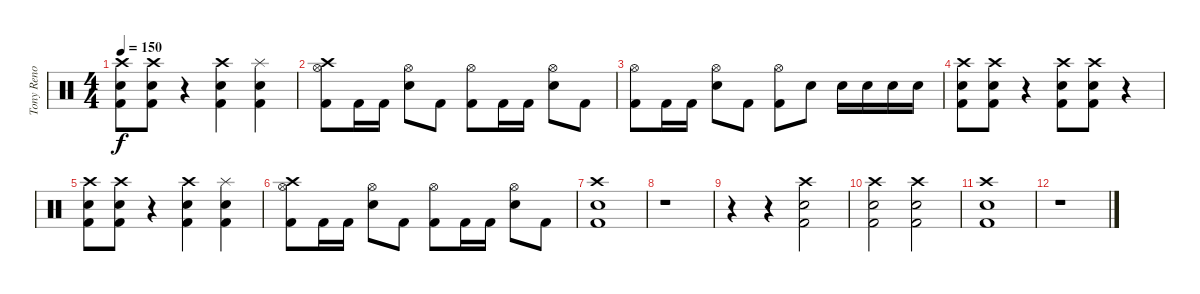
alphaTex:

\track ("Tony Reno" "Tony Reno") {instrument percussion}
\staff {score}
\articulation defaults
\ts (4 4)
\tempo 150
\clef neutral
\ks c
("Kick (hit) 2" "Snare (hit) 2" "Crash high (hit)").8{dy f} ("Kick (hit) 2" "Snare (hit) 2" "Crash high (hit)").8 r.4 ("Kick (hit) 2" "Snare (hit) 2" "Crash high (hit)").4 ("Kick (hit) 2" "Snare (hit) 2" "Splash (hit)").4 |
("Kick (hit) 2" "Hi-Hat (open)" "Crash high (hit)").8 "Kick (hit) 2".16 "Kick (hit) 2".16 ("Snare (hit) 2" "Hi-Hat (open)").8 "Kick (hit) 2".8 ("Kick (hit) 2" "Hi-Hat (open)").8 "Kick (hit) 2".16 "Kick (hit) 2".16 ("Snare (hit) 2" "Hi-Hat (open)").8 "Kick (hit) 2".8 |
("Kick (hit) 2" "Hi-Hat (open)").8 "Kick (hit) 2".16 "Kick (hit) 2".16 ("Snare (hit) 2" "Hi-Hat (open)").8 "Kick (hit) 2".8 ("Kick (hit) 2" "Hi-Hat (open)").8 "Snare (hit) 2".8 "Snare (hit) 2".16 "Snare (hit) 2".16 "Snare (hit) 2".16 "Snare (hit) 2".16 |
("Kick (hit) 2" "Snare (hit) 2" "Crash high (hit)").8 ("Kick (hit) 2" "Snare (hit) 2" "Crash high (hit)").8 r.4 ("Kick (hit) 2" "Snare (hit) 2" "Crash high (hit)").8 ("Kick (hit) 2" "Snare (hit) 2" "Crash high (hit)").8 r.4 |
("Kick (hit) 2" "Snare (hit) 2" "Crash high (hit)").8 ("Kick (hit) 2" "Snare (hit) 2" "Crash high (hit)").8 r.4 ("Kick (hit) 2" "Snare (hit) 2" "Crash high (hit)").4 ("Kick (hit) 2" "Snare (hit) 2" "Splash (hit)").4 |
("Kick (hit) 2" "Hi-Hat (open)" "Crash high (hit)").8 "Kick (hit) 2".16 "Kick (hit) 2".16 ("Snare (hit) 2" "Hi-Hat (open)").8 "Kick (hit) 2".8 ("Kick (hit) 2" "Hi-Hat (open)").8 "Kick (hit) 2".16 "Kick (hit) 2".16 ("Snare (hit) 2" "Hi-Hat (open)").8 "Kick (hit) 2".8 |
("Kick (hit) 2" "Snare (hit) 2" "Crash high (hit)").1 |
r.1 |
r.4 r.4 ("Kick (hit) 2" "Snare (hit) 2" "Crash high (hit)").2 |
("Kick (hit) 2" "Snare (hit) 2" "Crash high (hit)").2 ("Kick (hit) 2" "Snare (hit) 2" "Crash high (hit)").2 |
("Kick (hit) 2" "Snare (hit) 2" "Crash high (hit)").1 |
r.1
